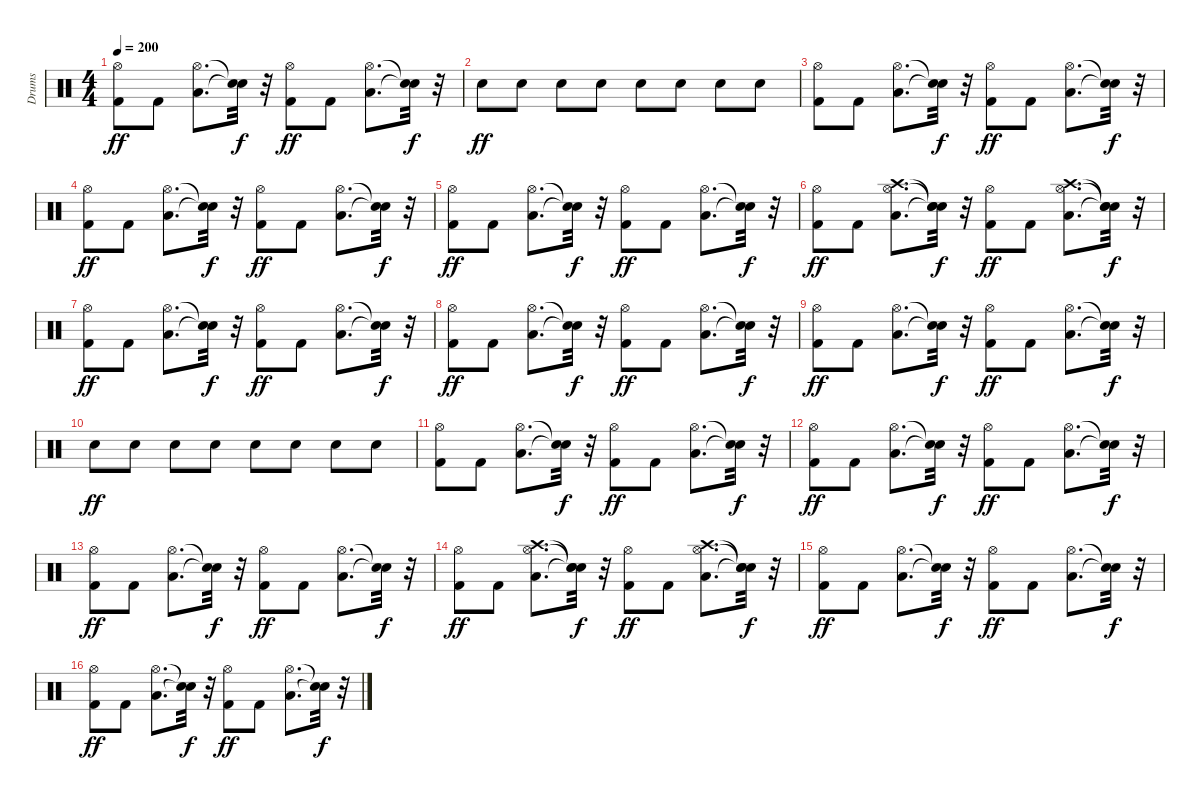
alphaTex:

\track ("Drums" "Drums") {instrument percussion}
\staff {score}
\articulation defaults
\ts (4 4)
\tempo 200
\clef neutral
\ks c
("Kick (hit) 2" "Hi-Hat (open)").8{dy ff} "Kick (hit) 2".8 ("Low Floor Tom (hit)" "Hi-Hat (open)").8{d} ("Snare (hit)"{t} "Snare (hit)"{t}).32{dy f} r.32 ("Kick (hit) 2" "Hi-Hat (open)").8{dy ff} "Kick (hit) 2".8 ("Low Floor Tom (hit)" "Hi-Hat (open)").8{d} ("Snare (hit)"{t} "Snare (hit)"{t}).32{dy f} r.32 |
"Snare (hit) 2".8{dy ff} "Snare (hit) 2".8 "Snare (hit) 2".8 "Snare (hit) 2".8 "Snare (hit) 2".8 "Snare (hit) 2".8 "Snare (hit) 2".8 "Snare (hit) 2".8 |
("Kick (hit) 2" "Hi-Hat (open)").8 "Kick (hit) 2".8 ("Low Floor Tom (hit)" "Hi-Hat (open)").8{d} ("Snare (hit)"{t} "Snare (hit)"{t}).32{dy f} r.32 ("Kick (hit) 2" "Hi-Hat (open)").8{dy ff} "Kick (hit) 2".8 ("Low Floor Tom (hit)" "Hi-Hat (open)").8{d} ("Snare (hit)"{t} "Snare (hit)"{t}).32{dy f} r.32 |
("Kick (hit) 2" "Hi-Hat (open)").8{dy ff} "Kick (hit) 2".8 ("Low Floor Tom (hit)" "Hi-Hat (open)").8{d} ("Snare (hit)"{t} "Snare (hit)"{t}).32{dy f} r.32 ("Kick (hit) 2" "Hi-Hat (open)").8{dy ff} "Kick (hit) 2".8 ("Low Floor Tom (hit)" "Hi-Hat (open)").8{d} ("Snare (hit)"{t} "Snare (hit)"{t}).32{dy f} r.32 |
("Kick (hit) 2" "Hi-Hat (open)").8{dy ff} "Kick (hit) 2".8 ("Low Floor Tom (hit)" "Hi-Hat (open)").8{d} ("Snare (hit)"{t} "Snare (hit)"{t}).32{dy f} r.32 ("Kick (hit) 2" "Hi-Hat (open)").8{dy ff} "Kick (hit) 2".8 ("Low Floor Tom (hit)" "Hi-Hat (open)").8{d} ("Snare (hit)"{t} "Snare (hit)"{t}).32{dy f} r.32 |
("Kick (hit) 2" "Hi-Hat (open)").8{dy ff} "Kick (hit) 2".8 ("Low Floor Tom (hit)" "Hi-Hat (open)" "Crash high (hit)").8{d} ("Snare (hit)"{t} "Snare (hit)"{t} "Snare (hit)"{t}).32{dy f} r.32 ("Kick (hit) 2" "Hi-Hat (open)").8{dy ff} "Kick (hit) 2".8 ("Low Floor Tom (hit)" "Hi-Hat (open)" "Crash high (hit)").8{d} ("Snare (hit)"{t} "Snare (hit)"{t} "Snare (hit)"{t}).32{dy f} r.32 |
("Kick (hit) 2" "Hi-Hat (open)").8{dy ff} "Kick (hit) 2".8 ("Low Floor Tom (hit)" "Hi-Hat (open)").8{d} ("Snare (hit)"{t} "Snare (hit)"{t}).32{dy f} r.32 ("Kick (hit) 2" "Hi-Hat (open)").8{dy ff} "Kick (hit) 2".8 ("Low Floor Tom (hit)" "Hi-Hat (open)").8{d} ("Snare (hit)"{t} "Snare (hit)"{t}).32{dy f} r.32 |
("Kick (hit) 2" "Hi-Hat (open)").8{dy ff} "Kick (hit) 2".8 ("Low Floor Tom (hit)" "Hi-Hat (open)").8{d} ("Snare (hit)"{t} "Snare (hit)"{t}).32{dy f} r.32 ("Kick (hit) 2" "Hi-Hat (open)").8{dy ff} "Kick (hit) 2".8 ("Low Floor Tom (hit)" "Hi-Hat (open)").8{d} ("Snare (hit)"{t} "Snare (hit)"{t}).32{dy f} r.32 |
("Kick (hit) 2" "Hi-Hat (open)").8{dy ff} "Kick (hit) 2".8 ("Low Floor Tom (hit)" "Hi-Hat (open)").8{d} ("Snare (hit)"{t} "Snare (hit)"{t}).32{dy f} r.32 ("Kick (hit) 2" "Hi-Hat (open)").8{dy ff} "Kick (hit) 2".8 ("Low Floor Tom (hit)" "Hi-Hat (open)").8{d} ("Snare (hit)"{t} "Snare (hit)"{t}).32{dy f} r.32 |
"Snare (hit) 2".8{dy ff} "Snare (hit) 2".8 "Snare (hit) 2".8 "Snare (hit) 2".8 "Snare (hit) 2".8 "Snare (hit) 2".8 "Snare (hit) 2".8 "Snare (hit) 2".8 |
("Kick (hit) 2" "Hi-Hat (open)").8 "Kick (hit) 2".8 ("Low Floor Tom (hit)" "Hi-Hat (open)").8{d} ("Snare (hit)"{t} "Snare (hit)"{t}).32{dy f} r.32 ("Kick (hit) 2" "Hi-Hat (open)").8{dy ff} "Kick (hit) 2".8 ("Low Floor Tom (hit)" "Hi-Hat (open)").8{d} ("Snare (hit)"{t} "Snare (hit)"{t}).32{dy f} r.32 |
("Kick (hit) 2" "Hi-Hat (open)").8{dy ff} "Kick (hit) 2".8 ("Low Floor Tom (hit)" "Hi-Hat (open)").8{d} ("Snare (hit)"{t} "Snare (hit)"{t}).32{dy f} r.32 ("Kick (hit) 2" "Hi-Hat (open)").8{dy ff} "Kick (hit) 2".8 ("Low Floor Tom (hit)" "Hi-Hat (open)").8{d} ("Snare (hit)"{t} "Snare (hit)"{t}).32{dy f} r.32 |
("Kick (hit) 2" "Hi-Hat (open)").8{dy ff} "Kick (hit) 2".8 ("Low Floor Tom (hit)" "Hi-Hat (open)").8{d} ("Snare (hit)"{t} "Snare (hit)"{t}).32{dy f} r.32 ("Kick (hit) 2" "Hi-Hat (open)").8{dy ff} "Kick (hit) 2".8 ("Low Floor Tom (hit)" "Hi-Hat (open)").8{d} ("Snare (hit)"{t} "Snare (hit)"{t}).32{dy f} r.32 |
("Kick (hit) 2" "Hi-Hat (open)").8{dy ff} "Kick (hit) 2".8 ("Low Floor Tom (hit)" "Hi-Hat (open)" "Crash high (hit)").8{d} ("Snare (hit)"{t} "Snare (hit)"{t} "Snare (hit)"{t}).32{dy f} r.32 ("Kick (hit) 2" "Hi-Hat (open)").8{dy ff} "Kick (hit) 2".8 ("Low Floor Tom (hit)" "Hi-Hat (open)" "Crash high (hit)").8{d} ("Snare (hit)"{t} "Snare (hit)"{t} "Snare (hit)"{t}).32{dy f} r.32 |
("Kick (hit) 2" "Hi-Hat (open)").8{dy ff} "Kick (hit) 2".8 ("Low Floor Tom (hit)" "Hi-Hat (open)").8{d} ("Snare (hit)"{t} "Snare (hit)"{t}).32{dy f} r.32 ("Kick (hit) 2" "Hi-Hat (open)").8{dy ff} "Kick (hit) 2".8 ("Low Floor Tom (hit)" "Hi-Hat (open)").8{d} ("Snare (hit)"{t} "Snare (hit)"{t}).32{dy f} r.32 |
("Kick (hit) 2" "Hi-Hat (open)").8{dy ff} "Kick (hit) 2".8 ("Low Floor Tom (hit)" "Hi-Hat (open)").8{d} ("Snare (hit)"{t} "Snare (hit)"{t}).32{dy f} r.32 ("Kick (hit) 2" "Hi-Hat (open)").8{dy ff} "Kick (hit) 2".8 ("Low Floor Tom (hit)" "Hi-Hat (open)").8{d} ("Snare (hit)"{t} "Snare (hit)"{t}).32{dy f} r.32
